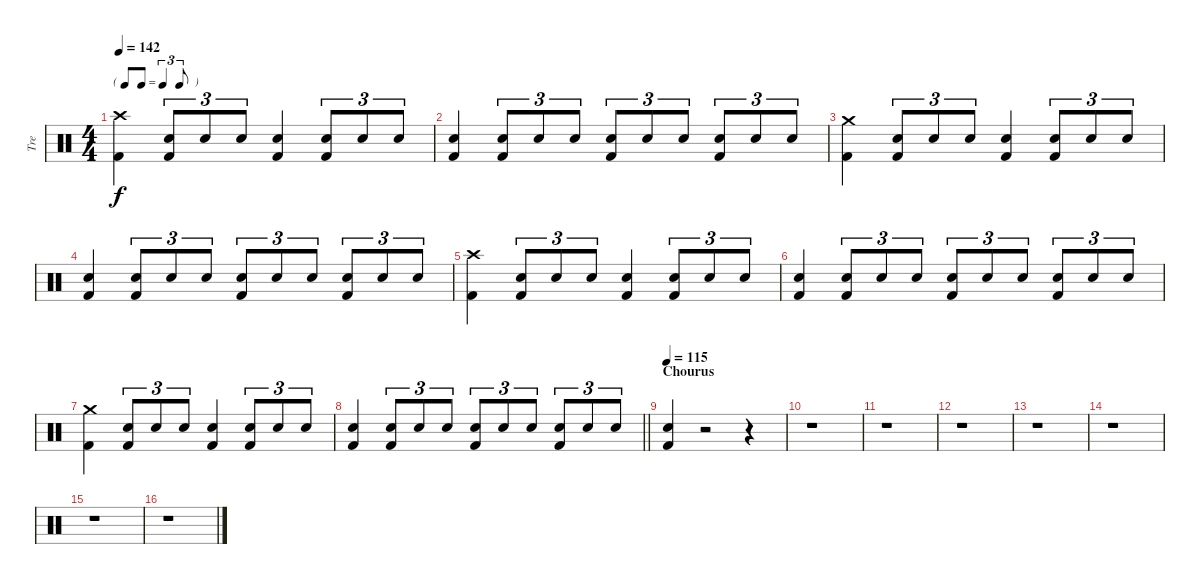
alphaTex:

\track ("Tre" "Tre") {instrument percussion}
\staff {score}
\articulation defaults
\ts (4 4)
\tf triplet8th
\tempo 142
\clef neutral
\ks c
("Crash high (hit)" "Kick (hit) 2").4{dy f} ("Snare (hit) 2" "Kick (hit) 2").8{tu (3 2)} "Snare (hit) 2".8{tu (3 2)} "Snare (hit) 2".8{tu (3 2)} ("Snare (hit) 2" "Kick (hit) 2").4 ("Snare (hit) 2" "Kick (hit) 2").8{tu (3 2)} "Snare (hit) 2".8{tu (3 2)} "Snare (hit) 2".8{tu (3 2)} |
("Snare (hit) 2" "Kick (hit) 2").4 ("Snare (hit) 2" "Kick (hit) 2").8{tu (3 2)} "Snare (hit) 2".8{tu (3 2)} "Snare (hit) 2".8{tu (3 2)} ("Snare (hit) 2" "Kick (hit) 2").8{tu (3 2)} "Snare (hit) 2".8{tu (3 2)} "Snare (hit) 2".8{tu (3 2)} ("Snare (hit) 2" "Kick (hit) 2").8{tu (3 2)} "Snare (hit) 2".8{tu (3 2)} "Snare (hit) 2".8{tu (3 2)} |
("Crash medium (hit)" "Kick (hit) 2").4 ("Snare (hit) 2" "Kick (hit) 2").8{tu (3 2)} "Snare (hit) 2".8{tu (3 2)} "Snare (hit) 2".8{tu (3 2)} ("Snare (hit) 2" "Kick (hit) 2").4 ("Snare (hit) 2" "Kick (hit) 2").8{tu (3 2)} "Snare (hit) 2".8{tu (3 2)} "Snare (hit) 2".8{tu (3 2)} |
("Snare (hit) 2" "Kick (hit) 2").4 ("Snare (hit) 2" "Kick (hit) 2").8{tu (3 2)} "Snare (hit) 2".8{tu (3 2)} "Snare (hit) 2".8{tu (3 2)} ("Snare (hit) 2" "Kick (hit) 2").8{tu (3 2)} "Snare (hit) 2".8{tu (3 2)} "Snare (hit) 2".8{tu (3 2)} ("Snare (hit) 2" "Kick (hit) 2").8{tu (3 2)} "Snare (hit) 2".8{tu (3 2)} "Snare (hit) 2".8{tu (3 2)} |
("Crash high (hit)" "Kick (hit) 2").4 ("Snare (hit) 2" "Kick (hit) 2").8{tu (3 2)} "Snare (hit) 2".8{tu (3 2)} "Snare (hit) 2".8{tu (3 2)} ("Snare (hit) 2" "Kick (hit) 2").4 ("Snare (hit) 2" "Kick (hit) 2").8{tu (3 2)} "Snare (hit) 2".8{tu (3 2)} "Snare (hit) 2".8{tu (3 2)} |
("Snare (hit) 2" "Kick (hit) 2").4 ("Snare (hit) 2" "Kick (hit) 2").8{tu (3 2)} "Snare (hit) 2".8{tu (3 2)} "Snare (hit) 2".8{tu (3 2)} ("Snare (hit) 2" "Kick (hit) 2").8{tu (3 2)} "Snare (hit) 2".8{tu (3 2)} "Snare (hit) 2".8{tu (3 2)} ("Snare (hit) 2" "Kick (hit) 2").8{tu (3 2)} "Snare (hit) 2".8{tu (3 2)} "Snare (hit) 2".8{tu (3 2)} |
("Crash medium (hit)" "Kick (hit) 2").4 ("Snare (hit) 2" "Kick (hit) 2").8{tu (3 2)} "Snare (hit) 2".8{tu (3 2)} "Snare (hit) 2".8{tu (3 2)} ("Snare (hit) 2" "Kick (hit) 2").4 ("Snare (hit) 2" "Kick (hit) 2").8{tu (3 2)} "Snare (hit) 2".8{tu (3 2)} "Snare (hit) 2".8{tu (3 2)} |
\barLineRight lightlight
("Snare (hit) 2" "Kick (hit) 2").4 ("Snare (hit) 2" "Kick (hit) 2").8{tu (3 2)} "Snare (hit) 2".8{tu (3 2)} "Snare (hit) 2".8{tu (3 2)} ("Snare (hit) 2" "Kick (hit) 2").8{tu (3 2)} "Snare (hit) 2".8{tu (3 2)} "Snare (hit) 2".8{tu (3 2)} ("Snare (hit) 2" "Kick (hit) 2").8{tu (3 2)} "Snare (hit) 2".8{tu (3 2)} "Snare (hit) 2".8{tu (3 2)} |
\section ("" "Chourus")
\tempo 115
("Snare (hit) 2" "Kick (hit) 2").4 r.2 r.4 |
r.1 |
r.1 |
r.1 |
r.1 |
r.1 |
r.1 |
r.1
